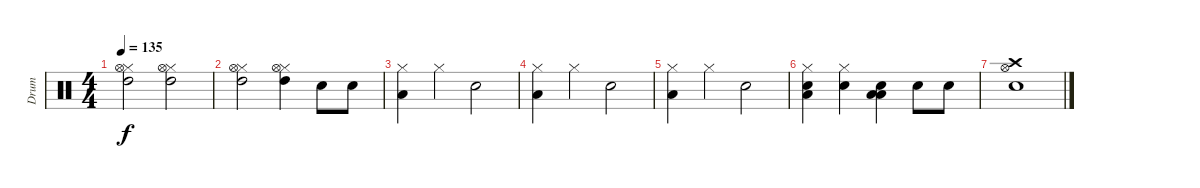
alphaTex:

\track ("Drum" "Drum") {instrument percussion}
\staff {score}
\articulation defaults
\ts (4 4)
\tempo 135
\clef neutral
\ks c
("High Tom (hit)" "Hi-Hat (closed)" "Hi-Hat (open)").2{dy f} ("High Tom (hit)" "Hi-Hat (closed)" "Hi-Hat (open)").2 |
("High Tom (hit)" "Hi-Hat (closed)" "Hi-Hat (open)").2 ("High Tom (hit)" "Hi-Hat (closed)" "Hi-Hat (open)").4 "Snare (hit) 2".8 "Snare (hit) 2".8 |
("Hi-Hat (closed)" "Low Tom (hit)").4 "Hi-Hat (closed)".4 "Snare (hit) 2".2 |
("Hi-Hat (closed)" "Low Tom (hit)").4 "Hi-Hat (closed)".4 "Snare (hit) 2".2 |
("Hi-Hat (closed)" "Low Tom (hit)").4 "Hi-Hat (closed)".4 "Snare (hit) 2".2 |
("Snare (hit) 2" "Hi-Hat (closed)" "Low Tom (hit)").4 ("Snare (hit) 2" "Hi-Hat (closed)").4 ("Snare (hit) 2" "Low Tom (hit)" "Low Tom (hit)").4 "Snare (hit) 2".8 "Snare (hit) 2".8 |
("Snare (hit) 2" "Hi-Hat (open)" "Crash high (hit)").1
